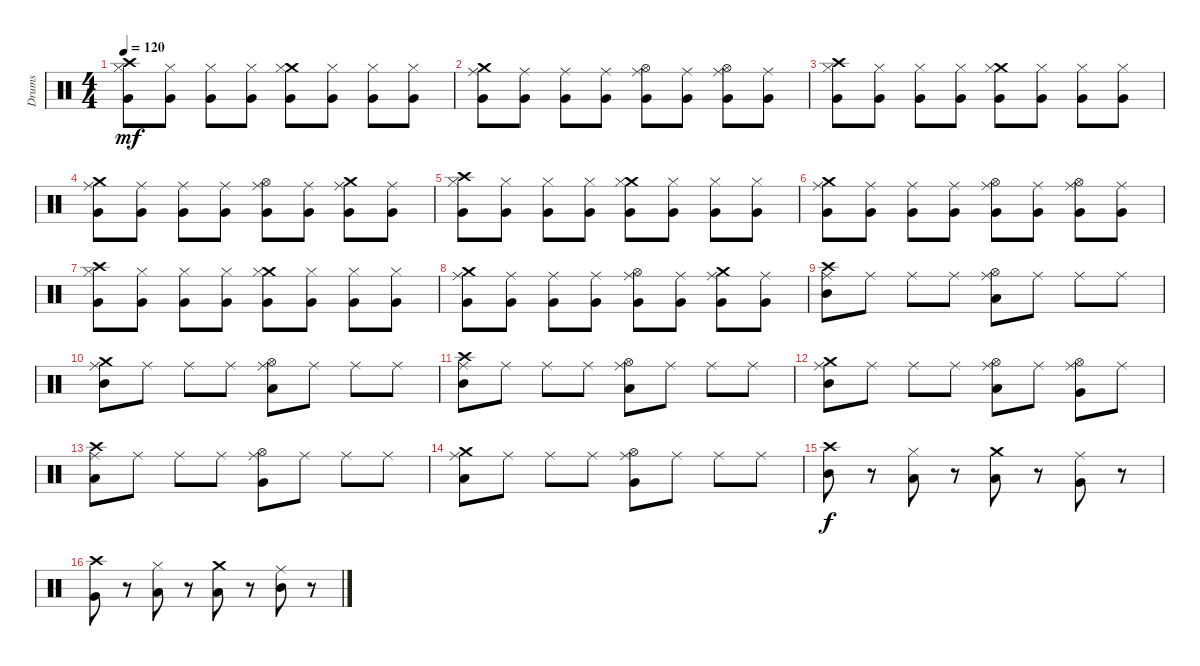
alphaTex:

\track ("Drums" "Drums") {instrument percussion}
\staff {score}
\articulation defaults
\ts (4 4)
\tempo 120
\clef neutral
\ks c
("Crash high (hit)" "Hi-Hat (closed)" "Very Low Tom (hit)").8{dy mf} ("Hi-Hat (closed)" "Very Low Tom (hit)").8 ("Hi-Hat (closed)" "Very Low Tom (hit)").8 ("Hi-Hat (closed)" "Very Low Tom (hit)").8 ("Crash medium (hit)" "Hi-Hat (closed)" "Very Low Tom (hit)").8 ("Hi-Hat (closed)" "Very Low Tom (hit)").8 ("Hi-Hat (closed)" "Very Low Tom (hit)").8 ("Hi-Hat (closed)" "Very Low Tom (hit)").8 |
("Crash medium (hit)" "Ride (middle)" "Very Low Tom (hit)").8 ("Ride (middle)" "Very Low Tom (hit)").8 ("Ride (middle)" "Very Low Tom (hit)").8 ("Ride (middle)" "Very Low Tom (hit)").8 ("Hi-Hat (open)" "Ride (middle)" "Very Low Tom (hit)").8 ("Ride (middle)" "Very Low Tom (hit)").8 ("Hi-Hat (open)" "Ride (middle)" "Very Low Tom (hit)").8 ("Ride (middle)" "Very Low Tom (hit)").8 |
("Crash high (hit)" "Hi-Hat (closed)" "Very Low Tom (hit)").8 ("Hi-Hat (closed)" "Very Low Tom (hit)").8 ("Hi-Hat (closed)" "Very Low Tom (hit)").8 ("Hi-Hat (closed)" "Very Low Tom (hit)").8 ("Crash medium (hit)" "Hi-Hat (closed)" "Very Low Tom (hit)").8 ("Hi-Hat (closed)" "Very Low Tom (hit)").8 ("Hi-Hat (closed)" "Very Low Tom (hit)").8 ("Hi-Hat (closed)" "Very Low Tom (hit)").8 |
("Crash medium (hit)" "Ride (middle)" "Very Low Tom (hit)").8 ("Ride (middle)" "Very Low Tom (hit)").8 ("Ride (middle)" "Very Low Tom (hit)").8 ("Ride (middle)" "Very Low Tom (hit)").8 ("Hi-Hat (open)" "Ride (middle)" "Very Low Tom (hit)").8 ("Ride (middle)" "Very Low Tom (hit)").8 ("Crash medium (hit)" "Ride (middle)" "Very Low Tom (hit)").8 ("Ride (middle)" "Very Low Tom (hit)").8 |
("Crash high (hit)" "Hi-Hat (closed)" "Very Low Tom (hit)").8 ("Hi-Hat (closed)" "Very Low Tom (hit)").8 ("Hi-Hat (closed)" "Very Low Tom (hit)").8 ("Hi-Hat (closed)" "Very Low Tom (hit)").8 ("Crash medium (hit)" "Hi-Hat (closed)" "Very Low Tom (hit)").8 ("Hi-Hat (closed)" "Very Low Tom (hit)").8 ("Hi-Hat (closed)" "Very Low Tom (hit)").8 ("Hi-Hat (closed)" "Very Low Tom (hit)").8 |
("Crash medium (hit)" "Ride (middle)" "Very Low Tom (hit)").8 ("Ride (middle)" "Very Low Tom (hit)").8 ("Ride (middle)" "Very Low Tom (hit)").8 ("Ride (middle)" "Very Low Tom (hit)").8 ("Hi-Hat (open)" "Ride (middle)" "Very Low Tom (hit)").8 ("Ride (middle)" "Very Low Tom (hit)").8 ("Hi-Hat (open)" "Ride (middle)" "Very Low Tom (hit)").8 ("Ride (middle)" "Very Low Tom (hit)").8 |
("Crash high (hit)" "Hi-Hat (closed)" "Very Low Tom (hit)").8 ("Hi-Hat (closed)" "Very Low Tom (hit)").8 ("Hi-Hat (closed)" "Very Low Tom (hit)").8 ("Hi-Hat (closed)" "Very Low Tom (hit)").8 ("Crash medium (hit)" "Hi-Hat (closed)" "Very Low Tom (hit)").8 ("Hi-Hat (closed)" "Very Low Tom (hit)").8 ("Hi-Hat (closed)" "Very Low Tom (hit)").8 ("Hi-Hat (closed)" "Very Low Tom (hit)").8 |
("Crash medium (hit)" "Ride (middle)" "Very Low Tom (hit)").8 ("Ride (middle)" "Very Low Tom (hit)").8 ("Ride (middle)" "Very Low Tom (hit)").8 ("Ride (middle)" "Very Low Tom (hit)").8 ("Hi-Hat (open)" "Ride (middle)" "Very Low Tom (hit)").8 ("Ride (middle)" "Very Low Tom (hit)").8 ("Crash medium (hit)" "Ride (middle)" "Very Low Tom (hit)").8 ("Ride (middle)" "Very Low Tom (hit)").8 |
("Crash high (hit)" "Ride (middle)" "Mid Tom (hit)").8 "Ride (middle)".8 "Ride (middle)".8 "Ride (middle)".8 ("Hi-Hat (open)" "Ride (middle)" "Low Tom (hit)").8 "Ride (middle)".8 "Ride (middle)".8 "Ride (middle)".8 |
("Crash medium (hit)" "Ride (middle)" "Mid Tom (hit)").8 "Ride (middle)".8 "Ride (middle)".8 "Ride (middle)".8 ("Hi-Hat (open)" "Ride (middle)" "Low Tom (hit)").8 "Ride (middle)".8 "Ride (middle)".8 "Ride (middle)".8 |
("Crash high (hit)" "Ride (middle)" "Mid Tom (hit)").8 "Ride (middle)".8 "Ride (middle)".8 "Ride (middle)".8 ("Hi-Hat (open)" "Ride (middle)" "Low Tom (hit)").8 "Ride (middle)".8 "Ride (middle)".8 "Ride (middle)".8 |
("Crash medium (hit)" "Ride (middle)" "Mid Tom (hit)").8 "Ride (middle)".8 "Ride (middle)".8 "Ride (middle)".8 ("Hi-Hat (open)" "Ride (middle)" "Low Tom (hit)").8 "Ride (middle)".8 ("Hi-Hat (open)" "Ride (middle)" "Very Low Tom (hit)").8 "Ride (middle)".8 |
("Crash high (hit)" "Ride (middle)" "Low Tom (hit)").8 "Ride (middle)".8 "Ride (middle)".8 "Ride (middle)".8 ("Hi-Hat (open)" "Ride (middle)" "Very Low Tom (hit)").8 "Ride (middle)".8 "Ride (middle)".8 "Ride (middle)".8 |
("Crash medium (hit)" "Ride (middle)" "Low Tom (hit)").8 "Ride (middle)".8 "Ride (middle)".8 "Ride (middle)".8 ("Hi-Hat (open)" "Ride (middle)" "Very Low Tom (hit)").8 "Ride (middle)".8 "Ride (middle)".8 "Ride (middle)".8 |
("Crash high (hit)" "Mid Tom (hit)").8{dy f} r.8 ("Hi-Hat (closed)" "Low Tom (hit)").8 r.8 ("Crash medium (hit)" "Low Tom (hit)").8 r.8 ("Ride (middle)" "Very Low Tom (hit)").8 r.8 |
("Crash high (hit)" "Very Low Tom (hit)").8 r.8 ("Hi-Hat (closed)" "Low Tom (hit)").8 r.8 ("Crash medium (hit)" "Low Tom (hit)").8 r.8 ("Ride (middle)" "Mid Tom (hit)").8 r.8
